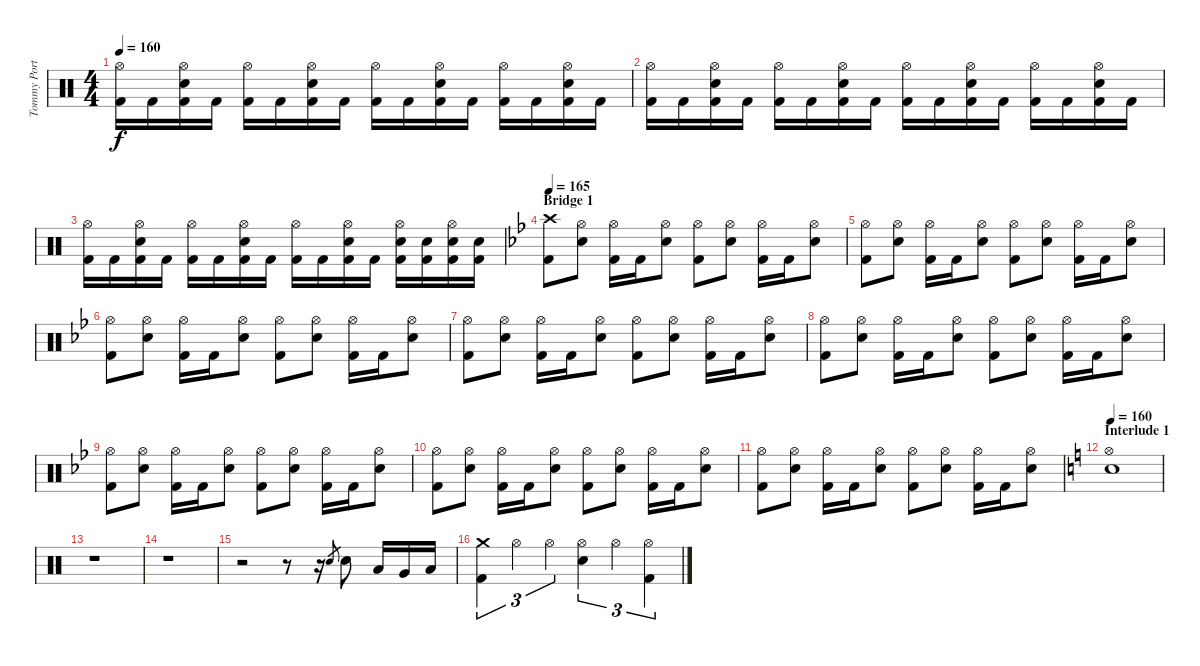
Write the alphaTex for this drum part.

\track ("Tommy Portimo" "Tommy Port") {instrument percussion}
\staff {score}
\articulation defaults
\ts (4 4)
\tempo 160
\clef neutral
\ks c
("Hi-Hat (open)" "Kick (hit) 2").16{dy f} "Kick (hit) 2".16 ("Hi-Hat (open)" "Snare (hit) 2" "Kick (hit) 2").16 "Kick (hit) 2".16 ("Hi-Hat (open)" "Kick (hit) 2").16 "Kick (hit) 2".16 ("Hi-Hat (open)" "Snare (hit) 2" "Kick (hit) 2").16 "Kick (hit) 2".16 ("Hi-Hat (open)" "Kick (hit) 2").16 "Kick (hit) 2".16 ("Hi-Hat (open)" "Snare (hit) 2" "Kick (hit) 2").16 "Kick (hit) 2".16 ("Hi-Hat (open)" "Kick (hit) 2").16 "Kick (hit) 2".16 ("Hi-Hat (open)" "Snare (hit) 2" "Kick (hit) 2").16 "Kick (hit) 2".16 |
("Hi-Hat (open)" "Kick (hit) 2").16 "Kick (hit) 2".16 ("Hi-Hat (open)" "Snare (hit) 2" "Kick (hit) 2").16 "Kick (hit) 2".16 ("Hi-Hat (open)" "Kick (hit) 2").16 "Kick (hit) 2".16 ("Hi-Hat (open)" "Snare (hit) 2" "Kick (hit) 2").16 "Kick (hit) 2".16 ("Hi-Hat (open)" "Kick (hit) 2").16 "Kick (hit) 2".16 ("Hi-Hat (open)" "Snare (hit) 2" "Kick (hit) 2").16 "Kick (hit) 2".16 ("Hi-Hat (open)" "Kick (hit) 2").16 "Kick (hit) 2".16 ("Hi-Hat (open)" "Snare (hit) 2" "Kick (hit) 2").16 "Kick (hit) 2".16 |
("Hi-Hat (open)" "Kick (hit) 2").16 "Kick (hit) 2".16 ("Hi-Hat (open)" "Snare (hit) 2" "Kick (hit) 2").16 "Kick (hit) 2".16 ("Hi-Hat (open)" "Kick (hit) 2").16 "Kick (hit) 2".16 ("Hi-Hat (open)" "Snare (hit) 2" "Kick (hit) 2").16 "Kick (hit) 2".16 ("Hi-Hat (open)" "Kick (hit) 2").16 "Kick (hit) 2".16 ("Hi-Hat (open)" "Snare (hit) 2" "Kick (hit) 2").16 "Kick (hit) 2".16 ("Hi-Hat (open)" "Snare (hit) 2" "Kick (hit) 2").16 ("Snare (hit) 2" "Kick (hit) 2").16 ("Hi-Hat (open)" "Snare (hit) 2" "Kick (hit) 2").16 ("Snare (hit) 2" "Kick (hit) 2").16 |
\section ("" "Bridge 1")
\tempo 165
\ks gminor
("Crash high (hit)" "Kick (hit) 2").8 ("Hi-Hat (open)" "Snare (hit) 2").8 ("Hi-Hat (open)" "Kick (hit) 2").16 "Kick (hit) 2".16 ("Hi-Hat (open)" "Snare (hit) 2").8 ("Hi-Hat (open)" "Kick (hit) 2").8 ("Hi-Hat (open)" "Snare (hit) 2").8 ("Hi-Hat (open)" "Kick (hit) 2").16 "Kick (hit) 2".16 ("Hi-Hat (open)" "Snare (hit) 2").8 |
("Hi-Hat (open)" "Kick (hit) 2").8 ("Hi-Hat (open)" "Snare (hit) 2").8 ("Hi-Hat (open)" "Kick (hit) 2").16 "Kick (hit) 2".16 ("Hi-Hat (open)" "Snare (hit) 2").8 ("Hi-Hat (open)" "Kick (hit) 2").8 ("Hi-Hat (open)" "Snare (hit) 2").8 ("Hi-Hat (open)" "Kick (hit) 2").16 "Kick (hit) 2".16 ("Hi-Hat (open)" "Snare (hit) 2").8 |
("Hi-Hat (open)" "Kick (hit) 2").8 ("Hi-Hat (open)" "Snare (hit) 2").8 ("Hi-Hat (open)" "Kick (hit) 2").16 "Kick (hit) 2".16 ("Hi-Hat (open)" "Snare (hit) 2").8 ("Hi-Hat (open)" "Kick (hit) 2").8 ("Hi-Hat (open)" "Snare (hit) 2").8 ("Hi-Hat (open)" "Kick (hit) 2").16 "Kick (hit) 2".16 ("Hi-Hat (open)" "Snare (hit) 2").8 |
("Hi-Hat (open)" "Kick (hit) 2").8 ("Hi-Hat (open)" "Snare (hit) 2").8 ("Hi-Hat (open)" "Kick (hit) 2").16 "Kick (hit) 2".16 ("Hi-Hat (open)" "Snare (hit) 2").8 ("Hi-Hat (open)" "Kick (hit) 2").8 ("Hi-Hat (open)" "Snare (hit) 2").8 ("Hi-Hat (open)" "Kick (hit) 2").16 "Kick (hit) 2".16 ("Hi-Hat (open)" "Snare (hit) 2").8 |
("Hi-Hat (open)" "Kick (hit) 2").8 ("Hi-Hat (open)" "Snare (hit) 2").8 ("Hi-Hat (open)" "Kick (hit) 2").16 "Kick (hit) 2".16 ("Hi-Hat (open)" "Snare (hit) 2").8 ("Hi-Hat (open)" "Kick (hit) 2").8 ("Hi-Hat (open)" "Snare (hit) 2").8 ("Hi-Hat (open)" "Kick (hit) 2").16 "Kick (hit) 2".16 ("Hi-Hat (open)" "Snare (hit) 2").8 |
("Hi-Hat (open)" "Kick (hit) 2").8 ("Hi-Hat (open)" "Snare (hit) 2").8 ("Hi-Hat (open)" "Kick (hit) 2").16 "Kick (hit) 2".16 ("Hi-Hat (open)" "Snare (hit) 2").8 ("Hi-Hat (open)" "Kick (hit) 2").8 ("Hi-Hat (open)" "Snare (hit) 2").8 ("Hi-Hat (open)" "Kick (hit) 2").16 "Kick (hit) 2".16 ("Hi-Hat (open)" "Snare (hit) 2").8 |
("Hi-Hat (open)" "Kick (hit) 2").8 ("Hi-Hat (open)" "Snare (hit) 2").8 ("Hi-Hat (open)" "Kick (hit) 2").16 "Kick (hit) 2".16 ("Hi-Hat (open)" "Snare (hit) 2").8 ("Hi-Hat (open)" "Kick (hit) 2").8 ("Hi-Hat (open)" "Snare (hit) 2").8 ("Hi-Hat (open)" "Kick (hit) 2").16 "Kick (hit) 2".16 ("Hi-Hat (open)" "Snare (hit) 2").8 |
("Hi-Hat (open)" "Kick (hit) 2").8 ("Hi-Hat (open)" "Snare (hit) 2").8 ("Hi-Hat (open)" "Kick (hit) 2").16 "Kick (hit) 2".16 ("Hi-Hat (open)" "Snare (hit) 2").8 ("Hi-Hat (open)" "Kick (hit) 2").8 ("Hi-Hat (open)" "Snare (hit) 2").8 ("Hi-Hat (open)" "Kick (hit) 2").16 "Kick (hit) 2".16 ("Hi-Hat (open)" "Snare (hit) 2").8 |
\section ("" "Interlude 1")
\tempo 170
\tempo 160
\ks c
("Hi-Hat (open)" "Snare (hit) 2").1 |
r.1 |
r.1 |
r.2 r.8 r.16 "Snare (hit) 2".8{gr} "Snare (hit) 2".8 "Low Tom (hit)".16 "Very Low Tom (hit)".16 "Low Floor Tom (hit)".16 |
("Crash medium (hit)" "Kick (hit) 2").4{tu (3 2)} "Hi-Hat (open)".4{tu (3 2)} "Hi-Hat (open)".4{tu (3 2)} ("Hi-Hat (open)" "Snare (hit) 2").4{tu (3 2)} "Hi-Hat (open)".4{tu (3 2)} ("Hi-Hat (open)" "Kick (hit) 2").4{tu (3 2)}
